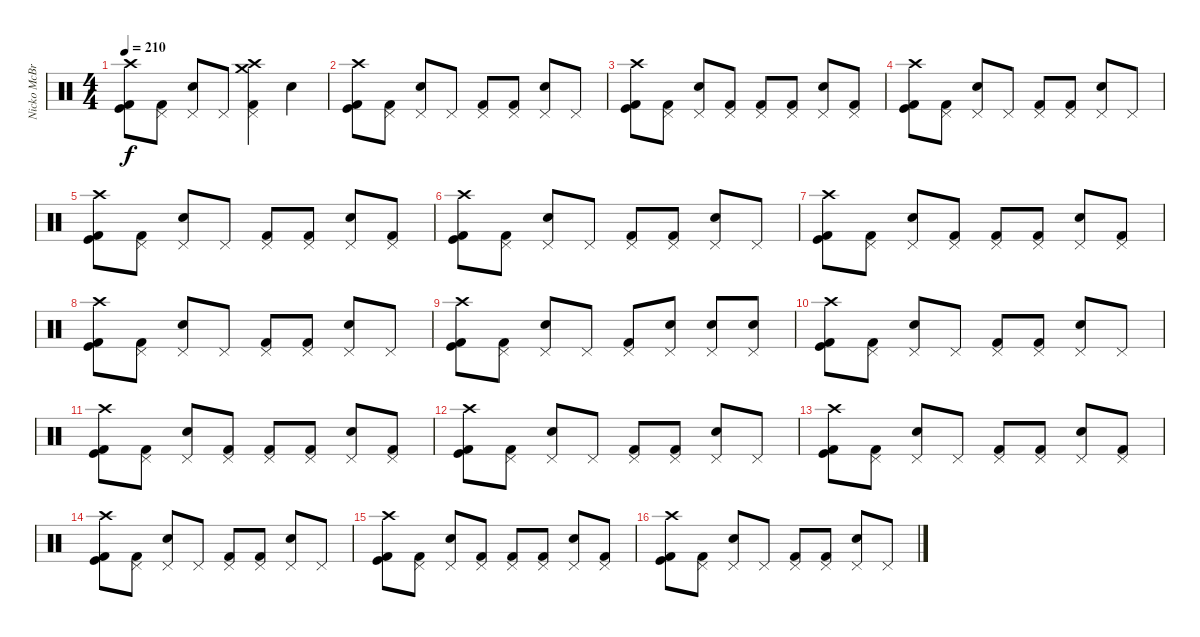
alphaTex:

\track ("Nicko McBrain" "Nicko McBr") {instrument percussion}
\staff {score}
\articulation defaults
\ts (4 4)
\tempo 210
\clef neutral
\ks c
("Crash high (hit)" "Kick (hit)" "Kick (hit) 2").8{dy f} ("Pedal Hi-Hat (hit)" "Kick (hit) 2").8 ("Pedal Hi-Hat (hit)" "Snare (hit) 2").8 "Pedal Hi-Hat (hit)".8 ("Pedal Hi-Hat (hit)" "Crash medium (hit)" "Crash high (hit)" "Kick (hit) 2").4 "Snare (hit) 2".4 |
("Crash high (hit)" "Kick (hit)" "Kick (hit) 2").8 ("Pedal Hi-Hat (hit)" "Kick (hit) 2").8 ("Pedal Hi-Hat (hit)" "Snare (hit) 2").8 "Pedal Hi-Hat (hit)".8 ("Pedal Hi-Hat (hit)" "Kick (hit) 2").8 ("Pedal Hi-Hat (hit)" "Kick (hit) 2").8 ("Pedal Hi-Hat (hit)" "Snare (hit) 2").8 "Pedal Hi-Hat (hit)".8 |
("Crash high (hit)" "Kick (hit)" "Kick (hit) 2").8 ("Pedal Hi-Hat (hit)" "Kick (hit) 2").8 ("Pedal Hi-Hat (hit)" "Snare (hit) 2").8 ("Pedal Hi-Hat (hit)" "Kick (hit) 2").8 ("Pedal Hi-Hat (hit)" "Kick (hit) 2").8 ("Pedal Hi-Hat (hit)" "Kick (hit) 2").8 ("Pedal Hi-Hat (hit)" "Snare (hit) 2").8 ("Pedal Hi-Hat (hit)" "Kick (hit) 2").8 |
("Crash high (hit)" "Kick (hit)" "Kick (hit) 2").8 ("Pedal Hi-Hat (hit)" "Kick (hit) 2").8 ("Pedal Hi-Hat (hit)" "Snare (hit) 2").8 "Pedal Hi-Hat (hit)".8 ("Pedal Hi-Hat (hit)" "Kick (hit) 2").8 ("Pedal Hi-Hat (hit)" "Kick (hit) 2").8 ("Pedal Hi-Hat (hit)" "Snare (hit) 2").8 "Pedal Hi-Hat (hit)".8 |
("Crash high (hit)" "Kick (hit)" "Kick (hit) 2").8 ("Pedal Hi-Hat (hit)" "Kick (hit) 2").8 ("Pedal Hi-Hat (hit)" "Snare (hit) 2").8 "Pedal Hi-Hat (hit)".8 ("Pedal Hi-Hat (hit)" "Kick (hit) 2").8 ("Pedal Hi-Hat (hit)" "Kick (hit) 2").8 ("Pedal Hi-Hat (hit)" "Snare (hit) 2").8 ("Pedal Hi-Hat (hit)" "Kick (hit) 2").8 |
("Crash high (hit)" "Kick (hit)" "Kick (hit) 2").8 ("Pedal Hi-Hat (hit)" "Kick (hit) 2").8 ("Pedal Hi-Hat (hit)" "Snare (hit) 2").8 "Pedal Hi-Hat (hit)".8 ("Pedal Hi-Hat (hit)" "Kick (hit) 2").8 ("Pedal Hi-Hat (hit)" "Kick (hit) 2").8 ("Pedal Hi-Hat (hit)" "Snare (hit) 2").8 "Pedal Hi-Hat (hit)".8 |
("Crash high (hit)" "Kick (hit)" "Kick (hit) 2").8 ("Pedal Hi-Hat (hit)" "Kick (hit) 2").8 ("Pedal Hi-Hat (hit)" "Snare (hit) 2").8 ("Pedal Hi-Hat (hit)" "Kick (hit) 2").8 ("Pedal Hi-Hat (hit)" "Kick (hit) 2").8 ("Pedal Hi-Hat (hit)" "Kick (hit) 2").8 ("Pedal Hi-Hat (hit)" "Snare (hit) 2").8 ("Pedal Hi-Hat (hit)" "Kick (hit) 2").8 |
("Crash high (hit)" "Kick (hit)" "Kick (hit) 2").8 ("Pedal Hi-Hat (hit)" "Kick (hit) 2").8 ("Pedal Hi-Hat (hit)" "Snare (hit) 2").8 "Pedal Hi-Hat (hit)".8 ("Pedal Hi-Hat (hit)" "Kick (hit) 2").8 ("Pedal Hi-Hat (hit)" "Kick (hit) 2").8 ("Pedal Hi-Hat (hit)" "Snare (hit) 2").8 "Pedal Hi-Hat (hit)".8 |
("Crash high (hit)" "Kick (hit)" "Kick (hit) 2").8 ("Pedal Hi-Hat (hit)" "Kick (hit) 2").8 ("Pedal Hi-Hat (hit)" "Snare (hit) 2").8 "Pedal Hi-Hat (hit)".8 ("Pedal Hi-Hat (hit)" "Kick (hit) 2").8 ("Pedal Hi-Hat (hit)" "Snare (hit) 2").8 ("Pedal Hi-Hat (hit)" "Snare (hit) 2").8 ("Pedal Hi-Hat (hit)" "Snare (hit) 2").8 |
("Crash high (hit)" "Kick (hit)" "Kick (hit) 2").8 ("Pedal Hi-Hat (hit)" "Kick (hit) 2").8 ("Pedal Hi-Hat (hit)" "Snare (hit) 2").8 "Pedal Hi-Hat (hit)".8 ("Pedal Hi-Hat (hit)" "Kick (hit) 2").8 ("Pedal Hi-Hat (hit)" "Kick (hit) 2").8 ("Pedal Hi-Hat (hit)" "Snare (hit) 2").8 "Pedal Hi-Hat (hit)".8 |
("Crash high (hit)" "Kick (hit)" "Kick (hit) 2").8 ("Pedal Hi-Hat (hit)" "Kick (hit) 2").8 ("Pedal Hi-Hat (hit)" "Snare (hit) 2").8 ("Pedal Hi-Hat (hit)" "Kick (hit) 2").8 ("Pedal Hi-Hat (hit)" "Kick (hit) 2").8 ("Pedal Hi-Hat (hit)" "Kick (hit) 2").8 ("Pedal Hi-Hat (hit)" "Snare (hit) 2").8 ("Pedal Hi-Hat (hit)" "Kick (hit) 2").8 |
("Crash high (hit)" "Kick (hit)" "Kick (hit) 2").8 ("Pedal Hi-Hat (hit)" "Kick (hit) 2").8 ("Pedal Hi-Hat (hit)" "Snare (hit) 2").8 "Pedal Hi-Hat (hit)".8 ("Pedal Hi-Hat (hit)" "Kick (hit) 2").8 ("Pedal Hi-Hat (hit)" "Kick (hit) 2").8 ("Pedal Hi-Hat (hit)" "Snare (hit) 2").8 "Pedal Hi-Hat (hit)".8 |
("Crash high (hit)" "Kick (hit)" "Kick (hit) 2").8 ("Pedal Hi-Hat (hit)" "Kick (hit) 2").8 ("Pedal Hi-Hat (hit)" "Snare (hit) 2").8 "Pedal Hi-Hat (hit)".8 ("Pedal Hi-Hat (hit)" "Kick (hit) 2").8 ("Pedal Hi-Hat (hit)" "Kick (hit) 2").8 ("Pedal Hi-Hat (hit)" "Snare (hit) 2").8 ("Pedal Hi-Hat (hit)" "Kick (hit) 2").8 |
("Crash high (hit)" "Kick (hit)" "Kick (hit) 2").8 ("Pedal Hi-Hat (hit)" "Kick (hit) 2").8 ("Pedal Hi-Hat (hit)" "Snare (hit) 2").8 "Pedal Hi-Hat (hit)".8 ("Pedal Hi-Hat (hit)" "Kick (hit) 2").8 ("Pedal Hi-Hat (hit)" "Kick (hit) 2").8 ("Pedal Hi-Hat (hit)" "Snare (hit) 2").8 "Pedal Hi-Hat (hit)".8 |
("Crash high (hit)" "Kick (hit)" "Kick (hit) 2").8 ("Pedal Hi-Hat (hit)" "Kick (hit) 2").8 ("Pedal Hi-Hat (hit)" "Snare (hit) 2").8 ("Pedal Hi-Hat (hit)" "Kick (hit) 2").8 ("Pedal Hi-Hat (hit)" "Kick (hit) 2").8 ("Pedal Hi-Hat (hit)" "Kick (hit) 2").8 ("Pedal Hi-Hat (hit)" "Snare (hit) 2").8 ("Pedal Hi-Hat (hit)" "Kick (hit) 2").8 |
("Crash high (hit)" "Kick (hit)" "Kick (hit) 2").8 ("Pedal Hi-Hat (hit)" "Kick (hit) 2").8 ("Pedal Hi-Hat (hit)" "Snare (hit) 2").8 "Pedal Hi-Hat (hit)".8 ("Pedal Hi-Hat (hit)" "Kick (hit) 2").8 ("Pedal Hi-Hat (hit)" "Kick (hit) 2").8 ("Pedal Hi-Hat (hit)" "Snare (hit) 2").8 "Pedal Hi-Hat (hit)".8
